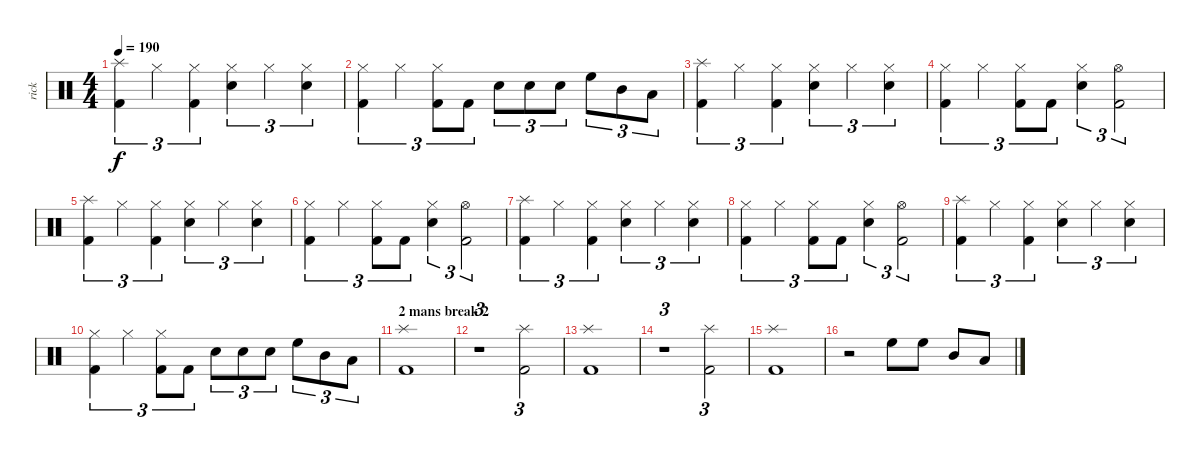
\track ("rick" "rick") {instrument percussion}
\staff {score}
\articulation defaults
\ts (4 4)
\tempo 190
\clef neutral
\ks c
("Splash (hit)" "Kick (hit) 2").4{tu (3 2) dy f} "Hi-Hat (closed)".4{tu (3 2)} ("Hi-Hat (closed)" "Kick (hit) 2").4{tu (3 2)} ("Hi-Hat (closed)" "Snare (hit) 2").4{tu (3 2)} "Hi-Hat (closed)".4{tu (3 2)} ("Hi-Hat (closed)" "Snare (hit) 2").4{tu (3 2)} |
("Hi-Hat (closed)" "Kick (hit) 2").4{tu (3 2)} "Hi-Hat (closed)".4{tu (3 2)} ("Hi-Hat (closed)" "Kick (hit) 2").8{tu (3 2)} "Kick (hit) 2".8{tu (3 2)} "Snare (hit) 2".8{tu (3 2)} "Snare (hit) 2".8{tu (3 2)} "Snare (hit) 2".8{tu (3 2)} "High Floor Tom (hit)".8{tu (3 2)} "Mid Tom (hit)".8{tu (3 2)} "Low Floor Tom (hit)".8{tu (3 2)} |
("Splash (hit)" "Kick (hit) 2").4{tu (3 2)} "Hi-Hat (closed)".4{tu (3 2)} ("Hi-Hat (closed)" "Kick (hit) 2").4{tu (3 2)} ("Hi-Hat (closed)" "Snare (hit) 2").4{tu (3 2)} "Hi-Hat (closed)".4{tu (3 2)} ("Hi-Hat (closed)" "Snare (hit) 2").4{tu (3 2)} |
("Hi-Hat (closed)" "Kick (hit) 2").4{tu (3 2)} "Hi-Hat (closed)".4{tu (3 2)} ("Hi-Hat (closed)" "Kick (hit) 2").8{tu (3 2)} "Kick (hit) 2".8{tu (3 2)} ("Hi-Hat (closed)" "Snare (hit) 2").4{tu (3 2)} ("Hi-Hat (open)" "Kick (hit) 2").2{tu (3 2)} |
("Splash (hit)" "Kick (hit) 2").4{tu (3 2)} "Hi-Hat (closed)".4{tu (3 2)} ("Hi-Hat (closed)" "Kick (hit) 2").4{tu (3 2)} ("Hi-Hat (closed)" "Snare (hit) 2").4{tu (3 2)} "Hi-Hat (closed)".4{tu (3 2)} ("Hi-Hat (closed)" "Snare (hit) 2").4{tu (3 2)} |
("Hi-Hat (closed)" "Kick (hit) 2").4{tu (3 2)} "Hi-Hat (closed)".4{tu (3 2)} ("Hi-Hat (closed)" "Kick (hit) 2").8{tu (3 2)} "Kick (hit) 2".8{tu (3 2)} ("Hi-Hat (closed)" "Snare (hit) 2").4{tu (3 2)} ("Hi-Hat (open)" "Kick (hit) 2").2{tu (3 2)} |
("Splash (hit)" "Kick (hit) 2").4{tu (3 2)} "Hi-Hat (closed)".4{tu (3 2)} ("Hi-Hat (closed)" "Kick (hit) 2").4{tu (3 2)} ("Hi-Hat (closed)" "Snare (hit) 2").4{tu (3 2)} "Hi-Hat (closed)".4{tu (3 2)} ("Hi-Hat (closed)" "Snare (hit) 2").4{tu (3 2)} |
("Hi-Hat (closed)" "Kick (hit) 2").4{tu (3 2)} "Hi-Hat (closed)".4{tu (3 2)} ("Hi-Hat (closed)" "Kick (hit) 2").8{tu (3 2)} "Kick (hit) 2".8{tu (3 2)} ("Hi-Hat (closed)" "Snare (hit) 2").4{tu (3 2)} ("Hi-Hat (open)" "Kick (hit) 2").2{tu (3 2)} |
("Splash (hit)" "Kick (hit) 2").4{tu (3 2)} "Hi-Hat (closed)".4{tu (3 2)} ("Hi-Hat (closed)" "Kick (hit) 2").4{tu (3 2)} ("Hi-Hat (closed)" "Snare (hit) 2").4{tu (3 2)} "Hi-Hat (closed)".4{tu (3 2)} ("Hi-Hat (closed)" "Snare (hit) 2").4{tu (3 2)} |
("Hi-Hat (closed)" "Kick (hit) 2").4{tu (3 2)} "Hi-Hat (closed)".4{tu (3 2)} ("Hi-Hat (closed)" "Kick (hit) 2").8{tu (3 2)} "Kick (hit) 2".8{tu (3 2)} "Snare (hit) 2".8{tu (3 2)} "Snare (hit) 2".8{tu (3 2)} "Snare (hit) 2".8{tu (3 2)} "High Floor Tom (hit)".8{tu (3 2)} "Mid Tom (hit)".8{tu (3 2)} "Low Floor Tom (hit)".8{tu (3 2)} |
\section ("" "2 mans break 2")
("Splash (hit)" "Kick (hit) 2").1 |
r.1{tu (3 2)} ("Splash (hit)" "Kick (hit) 2").2{tu (3 2)} |
("Splash (hit)" "Kick (hit) 2").1 |
r.1{tu (3 2)} ("Splash (hit)" "Kick (hit) 2").2{tu (3 2)} |
("Splash (hit)" "Kick (hit) 2").1 |
r.2 "High Floor Tom (hit)".8 "High Floor Tom (hit)".8 "Mid Tom (hit)".8 "Low Floor Tom (hit)".8
